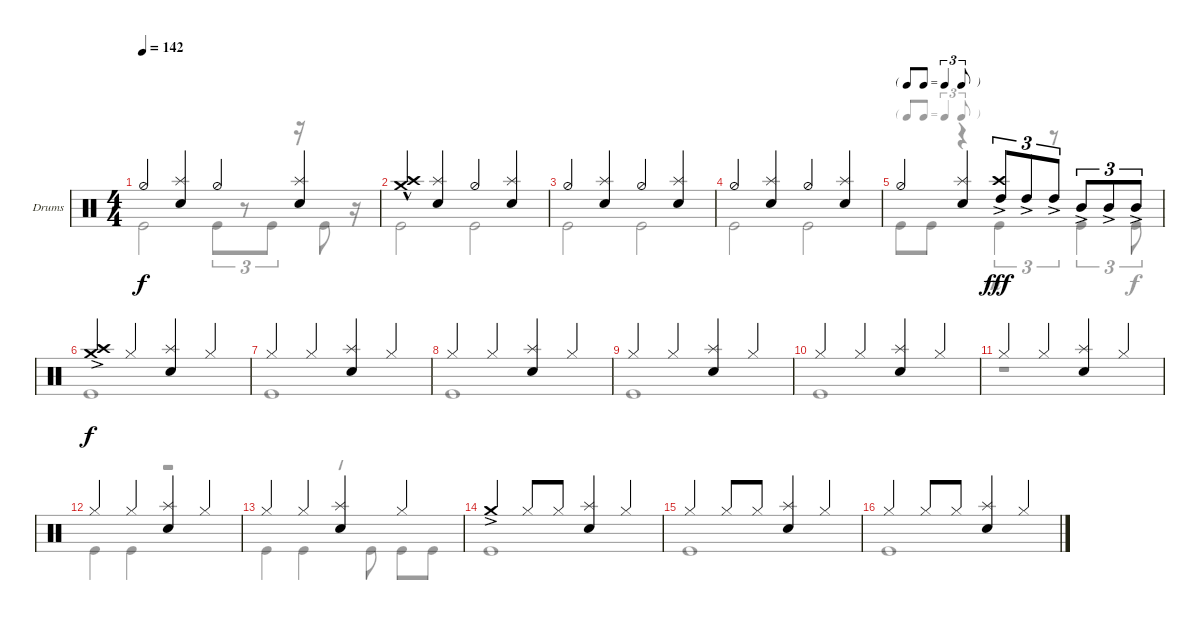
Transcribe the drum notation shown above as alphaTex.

\defaultSystemsLayout 4
\bracketExtendMode groupsimilarinstruments
\firstSystemTrackNameOrientation horizontal
\otherSystemsTrackNameOrientation horizontal
\track ("Drumkit" "Drums") {instrument percussion}
\staff {score}
\articulation defaults
\voice
\ts (4 4)
\tempo 142
\clef neutral
\ks c "Hi-Hat (half)".4{dy f}
("Snare (hit) 2" "Splash (hit)").4 "Hi-Hat (half)".4 ("Snare (hit) 2" "Splash (hit)").4 |
("Crash high (hit)"{hac} "Crash medium (hit)").4 ("Snare (hit) 2" "Splash (hit)").4 "Hi-Hat (half)".4 ("Snare (hit) 2" "Splash (hit)").4 |
"Hi-Hat (half)".4 ("Snare (hit) 2" "Splash (hit)").4 "Hi-Hat (half)".4 ("Snare (hit) 2" "Splash (hit)").4 |
"Hi-Hat (half)".4 ("Snare (hit) 2" "Splash (hit)").4 "Hi-Hat (half)".4 ("Snare (hit) 2" "Splash (hit)").4 |
\tf triplet8th "Hi-Hat (half)".4
("Snare (hit) 2" "Splash (hit)").4 ("Crash high (hit)"{ac} "High Tom (hit)"{ac}).8{tu (3 2) dy fff} "High Tom (hit)"{ac}.8{tu (3 2)} "High Tom (hit)"{ac}.8{tu (3 2)} "Mid Tom (hit)"{ac}.8{tu (3 2)} "Mid Tom (hit)"{ac}.8{tu (3 2)} "Mid Tom (hit)"{ac}.8{tu (3 2)} |
("Crash medium (hit)"{ac} "Crash high (hit)"{ac}).4{dy f} "Hi-Hat (closed)".4 ("Snare (hit) 2" "Splash (hit)").4 "Hi-Hat (closed)".4 |
"Hi-Hat (closed)".4 "Hi-Hat (closed)".4 ("Snare (hit) 2" "Splash (hit)").4 "Hi-Hat (closed)".4 |
"Hi-Hat (closed)".4 "Hi-Hat (closed)".4 ("Snare (hit) 2" "Splash (hit)").4 "Hi-Hat (closed)".4 |
"Hi-Hat (closed)".4 "Hi-Hat (closed)".4 ("Snare (hit) 2" "Splash (hit)").4 "Hi-Hat (closed)".4 |
"Hi-Hat (closed)".4 "Hi-Hat (closed)".4 ("Snare (hit) 2" "Splash (hit)").4 "Hi-Hat (closed)".4 |
"Hi-Hat (closed)".4 "Hi-Hat (closed)".4 ("Snare (hit) 2" "Splash (hit)").4 "Hi-Hat (closed)".4 |
"Hi-Hat (closed)".4 "Hi-Hat (closed)".4 ("Snare (hit) 2" "Splash (hit)").4 "Hi-Hat (closed)".4 |
"Hi-Hat (closed)".4 "Hi-Hat (closed)".4 ("Snare (hit) 2" "Splash (hit)").4 "Hi-Hat (closed)".4 |
"Crash medium (hit)"{ac}.4 "Hi-Hat (closed)".8 "Hi-Hat (closed)".8 ("Snare (hit) 2" "Splash (hit)").4 "Hi-Hat (closed)".4 |
"Hi-Hat (closed)".4 "Hi-Hat (closed)".8 "Hi-Hat (closed)".8 ("Snare (hit) 2" "Splash (hit)").4 "Hi-Hat (closed)".4 |
"Hi-Hat (closed)".4 "Hi-Hat (closed)".8 "Hi-Hat (closed)".8 ("Snare (hit) 2" "Splash (hit)").4 "Hi-Hat (closed)".4
\voice
\clef neutral
\ottava regular
\simile none
\ks c "Kick (hit)".2{dy f} "Kick (hit)".8{tu (3 2)}
r.8{tu (3 2)} "Kick (hit)".8{tu (3 2)} r.16 "Kick (hit)".8 r.16 |
"Kick (hit)".2 "Kick (hit)".2 |
"Kick (hit)".2 "Kick (hit)".2 |
"Kick (hit)".2 "Kick (hit)".2 |
"Kick (hit)".8 "Kick (hit)".8 r.4 "Kick (hit)".4{tu (3 2) dy mf} r.8{tu (3 2)} "Kick (hit)".4{tu (3 2)} "Kick (hit)".8{tu (3 2) dy f} |
"Kick (hit)".1 |
"Kick (hit)".1 |
"Kick (hit)".1 |
"Kick (hit)".1 |
"Kick (hit)".1 |
r.1 |
"Kick (hit)".4 "Kick (hit)".4 r.2 |
"Kick (hit)".4 "Kick (hit)".4 r.8 "Kick (hit)".8 "Kick (hit)".8 "Kick (hit)".8 |
"Kick (hit)".1 |
"Kick (hit)".1 |
"Kick (hit)".1
